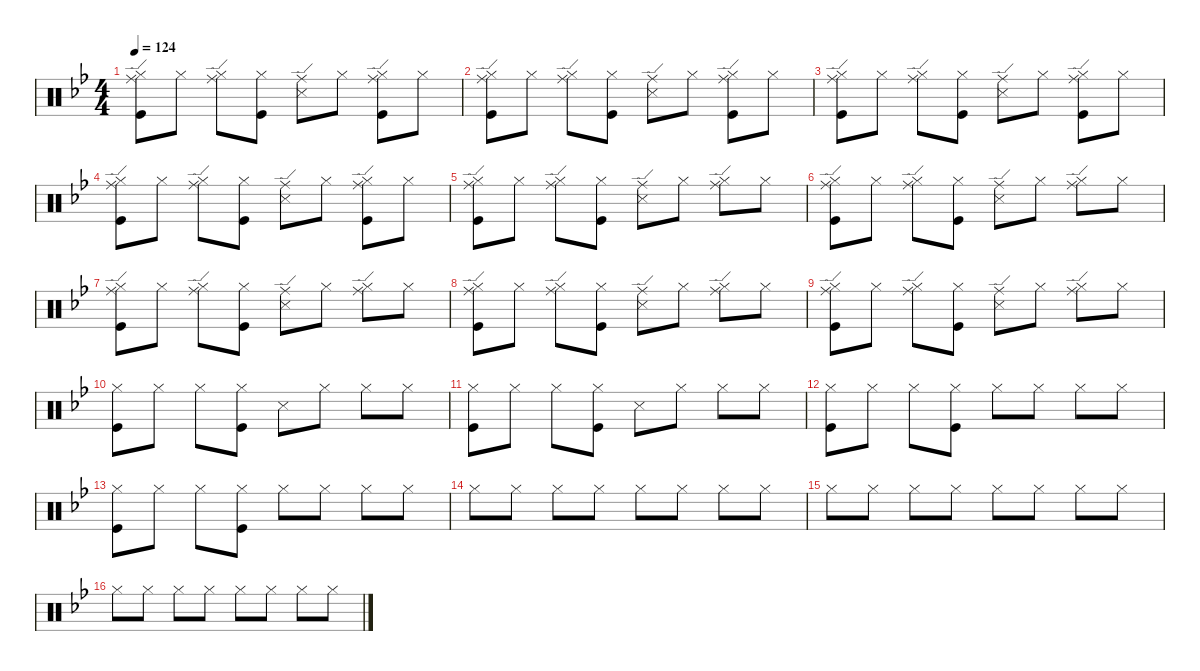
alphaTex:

\defaultSystemsLayout 4
\hideDynamics
\bracketExtendMode nobrackets
\singleTrackTrackNamePolicy hidden
\multiTrackTrackNamePolicy hidden
\firstSystemTrackNameMode fullname
\otherSystemsTrackNameOrientation horizontal
\track ("Percussion" "drm.") {defaultSystemsLayout 4 instrument percussion}
\staff {score}
\articulation defaults
\ts (4 4)
\tempo 124
\clef neutral
\ks gminor
("Ride (edge)"{acc forcenatural} "Hi-Hat (closed)"{acc forcenatural} "Kick (hit)"{acc forcenatural}).8{dy f beam Down} "Hi-Hat (closed)"{acc forcenatural}.8{beam Down} ("Ride (edge)"{acc forcenatural} "Hi-Hat (closed)"{acc forcenatural}).8{beam Down} ("Hi-Hat (closed)"{acc forcenatural} "Kick (hit)"{acc forcenatural}).8{beam Down} ("Ride (edge)"{acc forcenatural} "Snare (side stick) 3"{acc forcenatural}).8{beam Down} "Hi-Hat (closed)"{acc forcenatural}.8{beam Down} ("Ride (edge)"{acc forcenatural} "Hi-Hat (closed)"{acc forcenatural} "Kick (hit)"{acc forcenatural}).8{beam Down} "Hi-Hat (closed)"{acc forcenatural}.8{beam Down} |
("Ride (edge)"{acc forcenatural} "Hi-Hat (closed)"{acc forcenatural} "Kick (hit)"{acc forcenatural}).8{beam Down} "Hi-Hat (closed)"{acc forcenatural}.8{beam Down} ("Ride (edge)"{acc forcenatural} "Hi-Hat (closed)"{acc forcenatural}).8{beam Down} ("Hi-Hat (closed)"{acc forcenatural} "Kick (hit)"{acc forcenatural}).8{beam Down} ("Ride (edge)"{acc forcenatural} "Snare (side stick) 3"{acc forcenatural}).8{beam Down} "Hi-Hat (closed)"{acc forcenatural}.8{beam Down} ("Ride (edge)"{acc forcenatural} "Hi-Hat (closed)"{acc forcenatural} "Kick (hit)"{acc forcenatural}).8{beam Down} "Hi-Hat (closed)"{acc forcenatural}.8{beam Down} |
("Ride (edge)"{acc forcenatural} "Hi-Hat (closed)"{acc forcenatural} "Kick (hit)"{acc forcenatural}).8{beam Down} "Hi-Hat (closed)"{acc forcenatural}.8{beam Down} ("Ride (edge)"{acc forcenatural} "Hi-Hat (closed)"{acc forcenatural}).8{beam Down} ("Hi-Hat (closed)"{acc forcenatural} "Kick (hit)"{acc forcenatural}).8{beam Down} ("Ride (edge)"{acc forcenatural} "Snare (side stick) 3"{acc forcenatural}).8{beam Down} "Hi-Hat (closed)"{acc forcenatural}.8{beam Down} ("Ride (edge)"{acc forcenatural} "Hi-Hat (closed)"{acc forcenatural} "Kick (hit)"{acc forcenatural}).8{beam Down} "Hi-Hat (closed)"{acc forcenatural}.8{beam Down} |
("Ride (edge)"{acc forcenatural} "Hi-Hat (closed)"{acc forcenatural} "Kick (hit)"{acc forcenatural}).8{beam Down} "Hi-Hat (closed)"{acc forcenatural}.8{beam Down} ("Ride (edge)"{acc forcenatural} "Hi-Hat (closed)"{acc forcenatural}).8{beam Down} ("Hi-Hat (closed)"{acc forcenatural} "Kick (hit)"{acc forcenatural}).8{beam Down} ("Ride (edge)"{acc forcenatural} "Snare (side stick) 3"{acc forcenatural}).8{beam Down} "Hi-Hat (closed)"{acc forcenatural}.8{beam Down} ("Ride (edge)"{acc forcenatural} "Hi-Hat (closed)"{acc forcenatural} "Kick (hit)"{acc forcenatural}).8{beam Down} "Hi-Hat (closed)"{acc forcenatural}.8{beam Down} |
("Ride (edge)"{acc forcenatural} "Hi-Hat (closed)"{acc forcenatural} "Kick (hit)"{acc forcenatural}).8{beam Down} "Hi-Hat (closed)"{acc forcenatural}.8{beam Down} ("Ride (edge)"{acc forcenatural} "Hi-Hat (closed)"{acc forcenatural}).8{beam Down} ("Hi-Hat (closed)"{acc forcenatural} "Kick (hit)"{acc forcenatural}).8{beam Down} ("Ride (edge)"{acc forcenatural} "Snare (side stick) 3"{acc forcenatural}).8{beam Down} "Hi-Hat (closed)"{acc forcenatural}.8{beam Down} ("Ride (edge)"{acc forcenatural} "Hi-Hat (closed)"{acc forcenatural}).8{beam Down} "Hi-Hat (closed)"{acc forcenatural}.8{beam Down} |
("Ride (edge)"{acc forcenatural} "Hi-Hat (closed)"{acc forcenatural} "Kick (hit)"{acc forcenatural}).8{beam Down} "Hi-Hat (closed)"{acc forcenatural}.8{beam Down} ("Ride (edge)"{acc forcenatural} "Hi-Hat (closed)"{acc forcenatural}).8{beam Down} ("Hi-Hat (closed)"{acc forcenatural} "Kick (hit)"{acc forcenatural}).8{beam Down} ("Ride (edge)"{acc forcenatural} "Snare (side stick) 3"{acc forcenatural}).8{beam Down} "Hi-Hat (closed)"{acc forcenatural}.8{beam Down} ("Ride (edge)"{acc forcenatural} "Hi-Hat (closed)"{acc forcenatural}).8{beam Down} "Hi-Hat (closed)"{acc forcenatural}.8{beam Down} |
("Ride (edge)"{acc forcenatural} "Hi-Hat (closed)"{acc forcenatural} "Kick (hit)"{acc forcenatural}).8{beam Down} "Hi-Hat (closed)"{acc forcenatural}.8{beam Down} ("Ride (edge)"{acc forcenatural} "Hi-Hat (closed)"{acc forcenatural}).8{beam Down} ("Hi-Hat (closed)"{acc forcenatural} "Kick (hit)"{acc forcenatural}).8{beam Down} ("Ride (edge)"{acc forcenatural} "Snare (side stick) 3"{acc forcenatural}).8{beam Down} "Hi-Hat (closed)"{acc forcenatural}.8{beam Down} ("Ride (edge)"{acc forcenatural} "Hi-Hat (closed)"{acc forcenatural}).8{beam Down} "Hi-Hat (closed)"{acc forcenatural}.8{beam Down} |
("Ride (edge)"{acc forcenatural} "Hi-Hat (closed)"{acc forcenatural} "Kick (hit)"{acc forcenatural}).8{beam Down} "Hi-Hat (closed)"{acc forcenatural}.8{beam Down} ("Ride (edge)"{acc forcenatural} "Hi-Hat (closed)"{acc forcenatural}).8{beam Down} ("Hi-Hat (closed)"{acc forcenatural} "Kick (hit)"{acc forcenatural}).8{beam Down} ("Ride (edge)"{acc forcenatural} "Snare (side stick) 3"{acc forcenatural}).8{beam Down} "Hi-Hat (closed)"{acc forcenatural}.8{beam Down} ("Ride (edge)"{acc forcenatural} "Hi-Hat (closed)"{acc forcenatural}).8{beam Down} "Hi-Hat (closed)"{acc forcenatural}.8{beam Down} |
("Ride (edge)"{acc forcenatural} "Hi-Hat (closed)"{acc forcenatural} "Kick (hit)"{acc forcenatural}).8{beam Down} "Hi-Hat (closed)"{acc forcenatural}.8{beam Down} ("Ride (edge)"{acc forcenatural} "Hi-Hat (closed)"{acc forcenatural}).8{beam Down} ("Hi-Hat (closed)"{acc forcenatural} "Kick (hit)"{acc forcenatural}).8{beam Down} ("Ride (edge)"{acc forcenatural} "Snare (side stick) 3"{acc forcenatural}).8{beam Down} "Hi-Hat (closed)"{acc forcenatural}.8{beam Down} ("Ride (edge)"{acc forcenatural} "Hi-Hat (closed)"{acc forcenatural}).8{beam Down} "Hi-Hat (closed)"{acc forcenatural}.8{beam Down} |
("Hi-Hat (closed)"{acc forcenatural} "Kick (hit)"{acc forcenatural}).8{beam Down} "Hi-Hat (closed)"{acc forcenatural}.8{beam Down} "Hi-Hat (closed)"{acc forcenatural}.8{beam Down} ("Hi-Hat (closed)"{acc forcenatural} "Kick (hit)"{acc forcenatural}).8{beam Down} "Snare (side stick) 3"{acc forcenatural}.8{beam Down} "Hi-Hat (closed)"{acc forcenatural}.8{beam Down} "Hi-Hat (closed)"{acc forcenatural}.8{beam Down} "Hi-Hat (closed)"{acc forcenatural}.8{beam Down} |
("Hi-Hat (closed)"{acc forcenatural} "Kick (hit)"{acc forcenatural}).8{beam Down} "Hi-Hat (closed)"{acc forcenatural}.8{beam Down} "Hi-Hat (closed)"{acc forcenatural}.8{beam Down} ("Hi-Hat (closed)"{acc forcenatural} "Kick (hit)"{acc forcenatural}).8{beam Down} "Snare (side stick) 3"{acc forcenatural}.8{beam Down} "Hi-Hat (closed)"{acc forcenatural}.8{beam Down} "Hi-Hat (closed)"{acc forcenatural}.8{beam Down} "Hi-Hat (closed)"{acc forcenatural}.8{beam Down} |
("Hi-Hat (closed)"{acc forcenatural} "Kick (hit)"{acc forcenatural}).8{beam Down} "Hi-Hat (closed)"{acc forcenatural}.8{beam Down} "Hi-Hat (closed)"{acc forcenatural}.8{beam Down} ("Hi-Hat (closed)"{acc forcenatural} "Kick (hit)"{acc forcenatural}).8{beam Down} "Hi-Hat (closed)"{acc forcenatural}.8{beam Down} "Hi-Hat (closed)"{acc forcenatural}.8{beam Down} "Hi-Hat (closed)"{acc forcenatural}.8{beam Down} "Hi-Hat (closed)"{acc forcenatural}.8{beam Down} |
("Hi-Hat (closed)"{acc forcenatural} "Kick (hit)"{acc forcenatural}).8{beam Down} "Hi-Hat (closed)"{acc forcenatural}.8{beam Down} "Hi-Hat (closed)"{acc forcenatural}.8{beam Down} ("Hi-Hat (closed)"{acc forcenatural} "Kick (hit)"{acc forcenatural}).8{beam Down} "Hi-Hat (closed)"{acc forcenatural}.8{beam Down} "Hi-Hat (closed)"{acc forcenatural}.8{beam Down} "Hi-Hat (closed)"{acc forcenatural}.8{beam Down} "Hi-Hat (closed)"{acc forcenatural}.8{beam Down} |
"Hi-Hat (closed)"{acc forcenatural}.8{beam Down} "Hi-Hat (closed)"{acc forcenatural}.8{beam Down} "Hi-Hat (closed)"{acc forcenatural}.8{beam Down} "Hi-Hat (closed)"{acc forcenatural}.8{beam Down} "Hi-Hat (closed)"{acc forcenatural}.8{beam Down} "Hi-Hat (closed)"{acc forcenatural}.8{beam Down} "Hi-Hat (closed)"{acc forcenatural}.8{beam Down} "Hi-Hat (closed)"{acc forcenatural}.8{beam Down} |
"Hi-Hat (closed)"{acc forcenatural}.8{beam Down} "Hi-Hat (closed)"{acc forcenatural}.8{beam Down} "Hi-Hat (closed)"{acc forcenatural}.8{beam Down} "Hi-Hat (closed)"{acc forcenatural}.8{beam Down} "Hi-Hat (closed)"{acc forcenatural}.8{beam Down} "Hi-Hat (closed)"{acc forcenatural}.8{beam Down} "Hi-Hat (closed)"{acc forcenatural}.8{beam Down} "Hi-Hat (closed)"{acc forcenatural}.8{beam Down} |
"Hi-Hat (closed)"{acc forcenatural}.8{beam Down} "Hi-Hat (closed)"{acc forcenatural}.8{beam Down} "Hi-Hat (closed)"{acc forcenatural}.8{beam Down} "Hi-Hat (closed)"{acc forcenatural}.8{beam Down} "Hi-Hat (closed)"{acc forcenatural}.8{beam Down} "Hi-Hat (closed)"{acc forcenatural}.8{beam Down} "Hi-Hat (closed)"{acc forcenatural}.8{beam Down} "Hi-Hat (closed)"{acc forcenatural}.8{beam Down}
